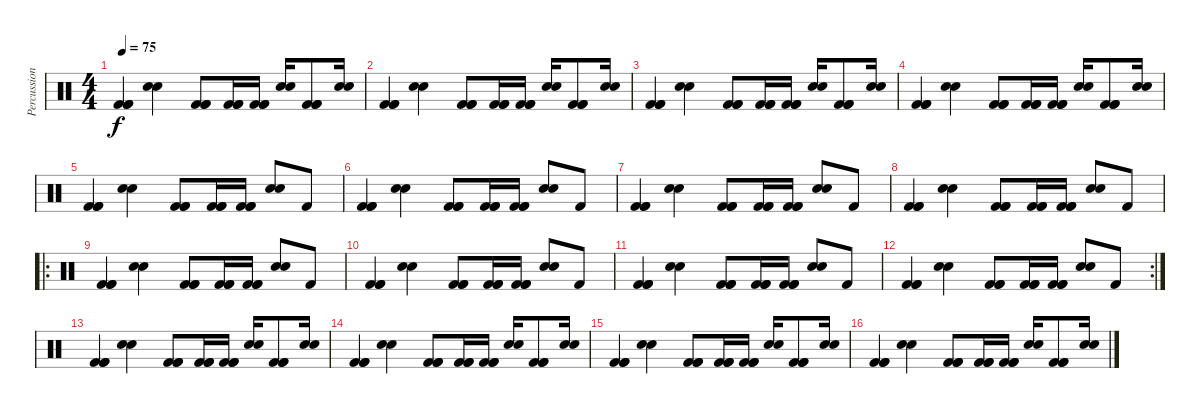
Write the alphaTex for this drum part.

\track ("Percussions" "Percussion") {instrument percussion}
\staff {score}
\articulation defaults
\ts (4 4)
\tempo 75
\clef neutral
\ks c
("Kick (hit) 2" "Kick (hit) 2" "Kick (hit) 2").4{dy f} ("Snare (hit) 2" "Snare (hit) 2").4 ("Kick (hit) 2" "Kick (hit) 2" "Kick (hit) 2").8 ("Kick (hit) 2" "Kick (hit) 2" "Kick (hit) 2").16 ("Kick (hit) 2" "Kick (hit) 2" "Kick (hit) 2").16 ("Snare (hit) 2" "Snare (hit) 2").16 ("Kick (hit) 2" "Kick (hit) 2" "Kick (hit) 2").8 ("Snare (hit) 2" "Snare (hit) 2").16 |
("Kick (hit) 2" "Kick (hit) 2" "Kick (hit) 2").4 ("Snare (hit) 2" "Snare (hit) 2").4 ("Kick (hit) 2" "Kick (hit) 2" "Kick (hit) 2").8 ("Kick (hit) 2" "Kick (hit) 2" "Kick (hit) 2").16 ("Kick (hit) 2" "Kick (hit) 2" "Kick (hit) 2").16 ("Snare (hit) 2" "Snare (hit) 2").16 ("Kick (hit) 2" "Kick (hit) 2" "Kick (hit) 2").8 ("Snare (hit) 2" "Snare (hit) 2").16 |
("Kick (hit) 2" "Kick (hit) 2" "Kick (hit) 2").4 ("Snare (hit) 2" "Snare (hit) 2").4 ("Kick (hit) 2" "Kick (hit) 2" "Kick (hit) 2").8 ("Kick (hit) 2" "Kick (hit) 2" "Kick (hit) 2").16 ("Kick (hit) 2" "Kick (hit) 2" "Kick (hit) 2").16 ("Snare (hit) 2" "Snare (hit) 2").16 ("Kick (hit) 2" "Kick (hit) 2" "Kick (hit) 2").8 ("Snare (hit) 2" "Snare (hit) 2").16 |
("Kick (hit) 2" "Kick (hit) 2" "Kick (hit) 2").4 ("Snare (hit) 2" "Snare (hit) 2").4 ("Kick (hit) 2" "Kick (hit) 2" "Kick (hit) 2").8 ("Kick (hit) 2" "Kick (hit) 2" "Kick (hit) 2").16 ("Kick (hit) 2" "Kick (hit) 2" "Kick (hit) 2").16 ("Snare (hit) 2" "Snare (hit) 2").16 ("Kick (hit) 2" "Kick (hit) 2" "Kick (hit) 2").8 ("Snare (hit) 2" "Snare (hit) 2").16 |
("Kick (hit) 2" "Kick (hit) 2" "Kick (hit) 2").4 ("Snare (hit) 2" "Snare (hit) 2").4 ("Kick (hit) 2" "Kick (hit) 2" "Kick (hit) 2").8 ("Kick (hit) 2" "Kick (hit) 2" "Kick (hit) 2").16 ("Kick (hit) 2" "Kick (hit) 2" "Kick (hit) 2").16 ("Snare (hit) 2" "Snare (hit) 2").8 "Kick (hit) 2".8 |
("Kick (hit) 2" "Kick (hit) 2" "Kick (hit) 2").4 ("Snare (hit) 2" "Snare (hit) 2").4 ("Kick (hit) 2" "Kick (hit) 2" "Kick (hit) 2").8 ("Kick (hit) 2" "Kick (hit) 2" "Kick (hit) 2").16 ("Kick (hit) 2" "Kick (hit) 2" "Kick (hit) 2").16 ("Snare (hit) 2" "Snare (hit) 2").8 "Kick (hit) 2".8 |
("Kick (hit) 2" "Kick (hit) 2" "Kick (hit) 2").4 ("Snare (hit) 2" "Snare (hit) 2").4 ("Kick (hit) 2" "Kick (hit) 2" "Kick (hit) 2").8 ("Kick (hit) 2" "Kick (hit) 2" "Kick (hit) 2").16 ("Kick (hit) 2" "Kick (hit) 2" "Kick (hit) 2").16 ("Snare (hit) 2" "Snare (hit) 2").8 "Kick (hit) 2".8 |
("Kick (hit) 2" "Kick (hit) 2" "Kick (hit) 2").4 ("Snare (hit) 2" "Snare (hit) 2").4 ("Kick (hit) 2" "Kick (hit) 2" "Kick (hit) 2").8 ("Kick (hit) 2" "Kick (hit) 2" "Kick (hit) 2").16 ("Kick (hit) 2" "Kick (hit) 2" "Kick (hit) 2").16 ("Snare (hit) 2" "Snare (hit) 2").8 "Kick (hit) 2".8 |
\ro
("Kick (hit) 2" "Kick (hit) 2" "Kick (hit) 2").4 ("Snare (hit) 2" "Snare (hit) 2").4 ("Kick (hit) 2" "Kick (hit) 2" "Kick (hit) 2").8 ("Kick (hit) 2" "Kick (hit) 2" "Kick (hit) 2").16 ("Kick (hit) 2" "Kick (hit) 2" "Kick (hit) 2").16 ("Snare (hit) 2" "Snare (hit) 2").8 "Kick (hit) 2".8 |
("Kick (hit) 2" "Kick (hit) 2" "Kick (hit) 2").4 ("Snare (hit) 2" "Snare (hit) 2").4 ("Kick (hit) 2" "Kick (hit) 2" "Kick (hit) 2").8 ("Kick (hit) 2" "Kick (hit) 2" "Kick (hit) 2").16 ("Kick (hit) 2" "Kick (hit) 2" "Kick (hit) 2").16 ("Snare (hit) 2" "Snare (hit) 2").8 "Kick (hit) 2".8 |
("Kick (hit) 2" "Kick (hit) 2" "Kick (hit) 2").4 ("Snare (hit) 2" "Snare (hit) 2").4 ("Kick (hit) 2" "Kick (hit) 2" "Kick (hit) 2").8 ("Kick (hit) 2" "Kick (hit) 2" "Kick (hit) 2").16 ("Kick (hit) 2" "Kick (hit) 2" "Kick (hit) 2").16 ("Snare (hit) 2" "Snare (hit) 2").8 "Kick (hit) 2".8 |
\rc 2
("Kick (hit) 2" "Kick (hit) 2" "Kick (hit) 2").4 ("Snare (hit) 2" "Snare (hit) 2").4 ("Kick (hit) 2" "Kick (hit) 2" "Kick (hit) 2").8 ("Kick (hit) 2" "Kick (hit) 2" "Kick (hit) 2").16 ("Kick (hit) 2" "Kick (hit) 2" "Kick (hit) 2").16 ("Snare (hit) 2" "Snare (hit) 2").8 "Kick (hit) 2".8 |
("Kick (hit) 2" "Kick (hit) 2" "Kick (hit) 2").4 ("Snare (hit) 2" "Snare (hit) 2").4 ("Kick (hit) 2" "Kick (hit) 2" "Kick (hit) 2").8 ("Kick (hit) 2" "Kick (hit) 2" "Kick (hit) 2").16 ("Kick (hit) 2" "Kick (hit) 2" "Kick (hit) 2").16 ("Snare (hit) 2" "Snare (hit) 2").16 ("Kick (hit) 2" "Kick (hit) 2" "Kick (hit) 2").8 ("Snare (hit) 2" "Snare (hit) 2").16 |
("Kick (hit) 2" "Kick (hit) 2" "Kick (hit) 2").4 ("Snare (hit) 2" "Snare (hit) 2").4 ("Kick (hit) 2" "Kick (hit) 2" "Kick (hit) 2").8 ("Kick (hit) 2" "Kick (hit) 2" "Kick (hit) 2").16 ("Kick (hit) 2" "Kick (hit) 2" "Kick (hit) 2").16 ("Snare (hit) 2" "Snare (hit) 2").16 ("Kick (hit) 2" "Kick (hit) 2" "Kick (hit) 2").8 ("Snare (hit) 2" "Snare (hit) 2").16 |
("Kick (hit) 2" "Kick (hit) 2" "Kick (hit) 2").4 ("Snare (hit) 2" "Snare (hit) 2").4 ("Kick (hit) 2" "Kick (hit) 2" "Kick (hit) 2").8 ("Kick (hit) 2" "Kick (hit) 2" "Kick (hit) 2").16 ("Kick (hit) 2" "Kick (hit) 2" "Kick (hit) 2").16 ("Snare (hit) 2" "Snare (hit) 2").16 ("Kick (hit) 2" "Kick (hit) 2" "Kick (hit) 2").8 ("Snare (hit) 2" "Snare (hit) 2").16 |
("Kick (hit) 2" "Kick (hit) 2" "Kick (hit) 2").4 ("Snare (hit) 2" "Snare (hit) 2").4 ("Kick (hit) 2" "Kick (hit) 2" "Kick (hit) 2").8 ("Kick (hit) 2" "Kick (hit) 2" "Kick (hit) 2").16 ("Kick (hit) 2" "Kick (hit) 2" "Kick (hit) 2").16 ("Snare (hit) 2" "Snare (hit) 2").16 ("Kick (hit) 2" "Kick (hit) 2" "Kick (hit) 2").8 ("Snare (hit) 2" "Snare (hit) 2").16
